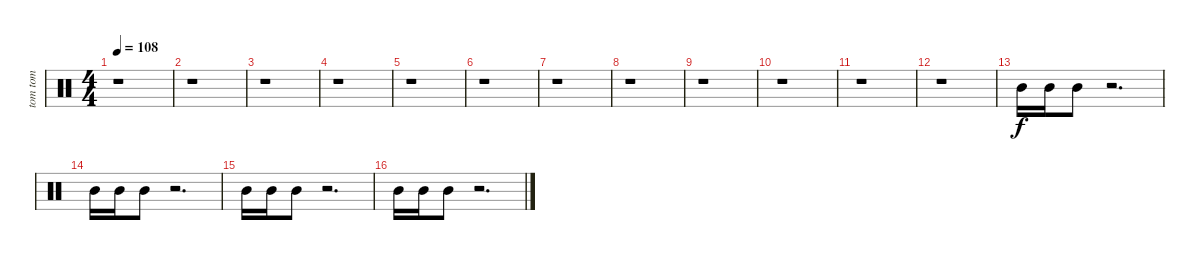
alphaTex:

\track ("tom tom             " "tom tom   ") {instrument percussion}
\staff {score}
\articulation defaults
\ts (4 4)
\tempo 108
\clef neutral
\ks c
r.1{dy f} |
r.1 |
r.1 |
r.1 |
r.1 |
r.1 |
r.1 |
r.1 |
r.1 |
r.1 |
r.1 |
r.1 |
"Mid Tom (hit)".16 "Mid Tom (hit)".16 "Mid Tom (hit)".8 r.2{d} |
"Mid Tom (hit)".16 "Mid Tom (hit)".16 "Mid Tom (hit)".8 r.2{d} |
"Mid Tom (hit)".16 "Mid Tom (hit)".16 "Mid Tom (hit)".8 r.2{d} |
"Mid Tom (hit)".16 "Mid Tom (hit)".16 "Mid Tom (hit)".8 r.2{d}
